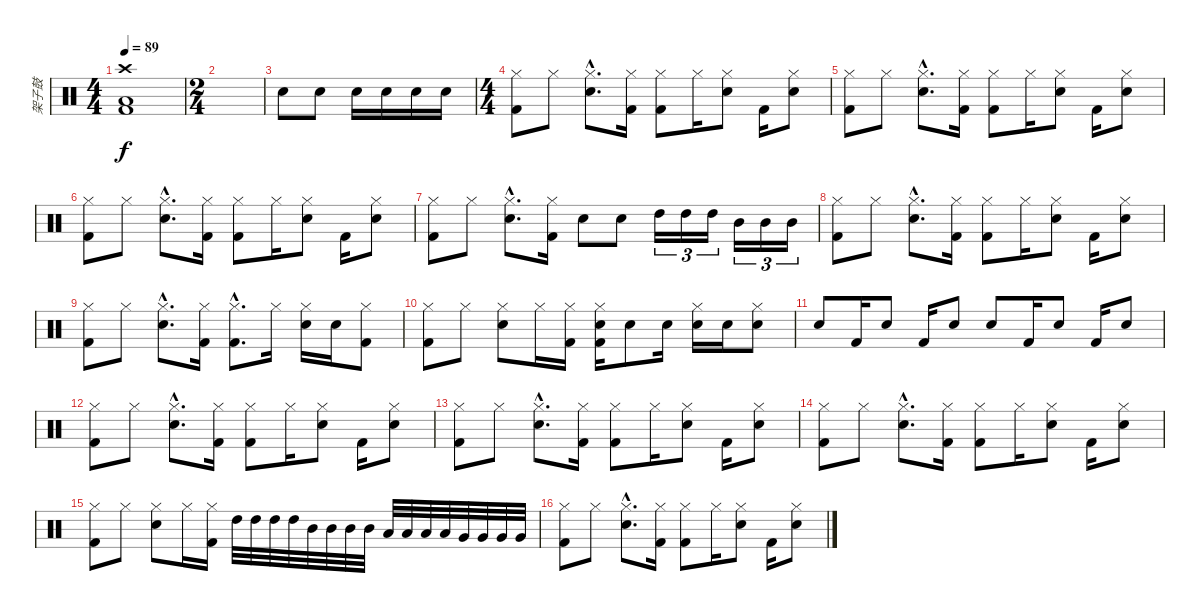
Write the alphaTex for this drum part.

\track ("架子鼓" "架子鼓") {instrument percussion}
\staff {score}
\articulation defaults
\ts (4 4)
\tempo 89
\clef neutral
\ks c
("Low Tom (hit)" "Kick (hit) 2" "Crash high (hit)").1{dy f} |
\ts (2 4)
|
"Snare (hit) 2".8{volume 10} "Snare (hit) 2".8 "Snare (hit) 2".16 "Snare (hit) 2".16 "Snare (hit) 2".16 "Snare (hit) 2".16 |
\ts (4 4)
("Hi-Hat (closed)" "Kick (hit) 2").8 "Hi-Hat (closed)".8 ("Hi-Hat (closed)"{hac} "Snare (hit) 2"{hac}).8{d} ("Hi-Hat (closed)" "Kick (hit) 2").16 ("Hi-Hat (closed)" "Kick (hit) 2").8 "Hi-Hat (closed)".16 ("Hi-Hat (closed)" "Snare (hit) 2").8 "Kick (hit) 2".16 ("Hi-Hat (closed)" "Snare (hit) 2").8 |
("Hi-Hat (closed)" "Kick (hit) 2").8 "Hi-Hat (closed)".8 ("Hi-Hat (closed)"{hac} "Snare (hit) 2"{hac}).8{d} ("Hi-Hat (closed)" "Kick (hit) 2").16 ("Hi-Hat (closed)" "Kick (hit) 2").8 "Hi-Hat (closed)".16 ("Hi-Hat (closed)" "Snare (hit) 2").8 "Kick (hit) 2".16 ("Hi-Hat (closed)" "Snare (hit) 2").8 |
("Hi-Hat (closed)" "Kick (hit) 2").8 "Hi-Hat (closed)".8 ("Hi-Hat (closed)"{hac} "Snare (hit) 2"{hac}).8{d} ("Hi-Hat (closed)" "Kick (hit) 2").16 ("Hi-Hat (closed)" "Kick (hit) 2").8 "Hi-Hat (closed)".16 ("Hi-Hat (closed)" "Snare (hit) 2").8 "Kick (hit) 2".16 ("Hi-Hat (closed)" "Snare (hit) 2").8 |
("Hi-Hat (closed)" "Kick (hit) 2").8 "Hi-Hat (closed)".8 ("Hi-Hat (closed)"{hac} "Snare (hit) 2"{hac}).8{d} ("Hi-Hat (closed)" "Kick (hit) 2").16 "Snare (hit) 2".8 "Snare (hit) 2".8 "High Tom (hit)".16{tu (3 2)} "High Tom (hit)".16{tu (3 2)} "High Tom (hit)".16{tu (3 2)} "Mid Tom (hit)".16{tu (3 2)} "Mid Tom (hit)".16{tu (3 2)} "Mid Tom (hit)".16{tu (3 2)} |
("Hi-Hat (closed)" "Kick (hit) 2").8 "Hi-Hat (closed)".8 ("Hi-Hat (closed)"{hac} "Snare (hit) 2"{hac}).8{d} ("Hi-Hat (closed)" "Kick (hit) 2").16 ("Hi-Hat (closed)" "Kick (hit) 2").8 "Hi-Hat (closed)".16 ("Hi-Hat (closed)" "Snare (hit) 2").8 "Kick (hit) 2".16 ("Hi-Hat (closed)" "Snare (hit) 2").8 |
("Hi-Hat (closed)" "Kick (hit) 2").8 "Hi-Hat (closed)".8 ("Hi-Hat (closed)"{hac} "Snare (hit) 2"{hac}).8{d} ("Hi-Hat (closed)" "Kick (hit) 2").16 ("Hi-Hat (closed)"{hac} "Kick (hit) 2"{hac}).8{d} "Hi-Hat (closed)".16 ("Hi-Hat (closed)" "Snare (hit) 2").16 "Snare (hit) 2".16 ("Hi-Hat (closed)" "Kick (hit) 2").8 |
("Hi-Hat (closed)" "Kick (hit) 2").8 "Hi-Hat (closed)".8 ("Hi-Hat (closed)" "Snare (hit) 2").8 "Hi-Hat (closed)".16 ("Hi-Hat (closed)" "Kick (hit) 2").16 ("Hi-Hat (closed)" "Snare (hit) 2" "Kick (hit) 2").16 "Snare (hit) 2".8 "Snare (hit) 2".16 ("Hi-Hat (closed)" "Snare (hit) 2").16 "Snare (hit) 2".16 ("Hi-Hat (closed)" "Snare (hit) 2").8 |
"Snare (hit) 2".8 "Kick (hit) 2".16 "Snare (hit) 2".8 "Kick (hit) 2".16 "Snare (hit) 2".8 "Snare (hit) 2".8 "Kick (hit) 2".16 "Snare (hit) 2".8 "Kick (hit) 2".16 "Snare (hit) 2".8 |
("Hi-Hat (closed)" "Kick (hit) 2").8 "Hi-Hat (closed)".8 ("Hi-Hat (closed)"{hac} "Snare (hit) 2"{hac}).8{d} ("Hi-Hat (closed)" "Kick (hit) 2").16 ("Hi-Hat (closed)" "Kick (hit) 2").8 "Hi-Hat (closed)".16 ("Hi-Hat (closed)" "Snare (hit) 2").8 "Kick (hit) 2".16 ("Hi-Hat (closed)" "Snare (hit) 2").8 |
("Hi-Hat (closed)" "Kick (hit) 2").8 "Hi-Hat (closed)".8 ("Hi-Hat (closed)"{hac} "Snare (hit) 2"{hac}).8{d} ("Hi-Hat (closed)" "Kick (hit) 2").16 ("Hi-Hat (closed)" "Kick (hit) 2").8 "Hi-Hat (closed)".16 ("Hi-Hat (closed)" "Snare (hit) 2").8 "Kick (hit) 2".16 ("Hi-Hat (closed)" "Snare (hit) 2").8 |
("Hi-Hat (closed)" "Kick (hit) 2").8 "Hi-Hat (closed)".8 ("Hi-Hat (closed)"{hac} "Snare (hit) 2"{hac}).8{d} ("Hi-Hat (closed)" "Kick (hit) 2").16 ("Hi-Hat (closed)" "Kick (hit) 2").8 "Hi-Hat (closed)".16 ("Hi-Hat (closed)" "Snare (hit) 2").8 "Kick (hit) 2".16 ("Hi-Hat (closed)" "Snare (hit) 2").8 |
("Hi-Hat (closed)" "Kick (hit) 2").8 "Hi-Hat (closed)".8 ("Hi-Hat (closed)" "Snare (hit) 2").8 "Hi-Hat (closed)".16 ("Hi-Hat (closed)" "Kick (hit) 2").16 "High Tom (hit)".32 "High Tom (hit)".32 "High Tom (hit)".32 "High Tom (hit)".32 "Mid Tom (hit)".32 "Mid Tom (hit)".32 "Mid Tom (hit)".32 "Mid Tom (hit)".32 "Low Tom (hit)".32 "Low Tom (hit)".32 "Low Tom (hit)".32 "Low Tom (hit)".32 "Very Low Tom (hit)".32 "Very Low Tom (hit)".32 "Very Low Tom (hit)".32 "Very Low Tom (hit)".32 |
("Hi-Hat (closed)" "Kick (hit) 2").8 "Hi-Hat (closed)".8 ("Hi-Hat (closed)"{hac} "Snare (hit) 2"{hac}).8{d} ("Hi-Hat (closed)" "Kick (hit) 2").16 ("Hi-Hat (closed)" "Kick (hit) 2").8 "Hi-Hat (closed)".16 ("Hi-Hat (closed)" "Snare (hit) 2").8 "Kick (hit) 2".16 ("Hi-Hat (closed)" "Snare (hit) 2").8
